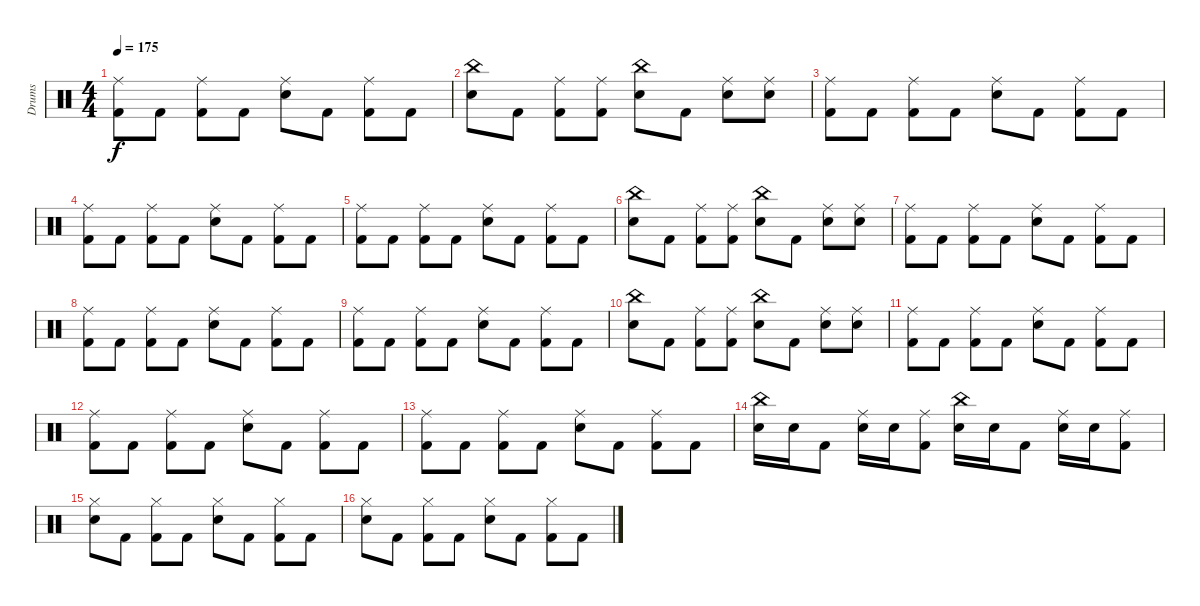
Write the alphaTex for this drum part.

\track ("Drums" "Drums") {instrument percussion}
\staff {score}
\articulation defaults
\ts (4 4)
\tempo 175
\clef neutral
\ks c
("Ride (middle)" "Kick (hit) 2").8{dy f} "Kick (hit) 2".8 ("Ride (middle)" "Kick (hit) 2").8 "Kick (hit) 2".8 ("Ride (middle)" "Electric Snare (hit)").8 "Kick (hit) 2".8 ("Ride (middle)" "Kick (hit) 2").8 "Kick (hit) 2".8 |
("China (hit)" "Electric Snare (hit)").8 "Kick (hit) 2".8 ("Ride (middle)" "Kick (hit) 2").8 ("Ride (middle)" "Kick (hit) 2").8 ("China (hit)" "Electric Snare (hit)").8 "Kick (hit) 2".8 ("Ride (middle)" "Electric Snare (hit)").8 ("Ride (middle)" "Electric Snare (hit)").8 |
("Ride (middle)" "Kick (hit) 2").8 "Kick (hit) 2".8 ("Ride (middle)" "Kick (hit) 2").8 "Kick (hit) 2".8 ("Ride (middle)" "Electric Snare (hit)").8 "Kick (hit) 2".8 ("Ride (middle)" "Kick (hit) 2").8 "Kick (hit) 2".8 |
("Ride (middle)" "Kick (hit) 2").8 "Kick (hit) 2".8 ("Ride (middle)" "Kick (hit) 2").8 "Kick (hit) 2".8 ("Ride (middle)" "Electric Snare (hit)").8 "Kick (hit) 2".8 ("Ride (middle)" "Kick (hit) 2").8 "Kick (hit) 2".8 |
("Ride (middle)" "Kick (hit) 2").8 "Kick (hit) 2".8 ("Ride (middle)" "Kick (hit) 2").8 "Kick (hit) 2".8 ("Ride (middle)" "Electric Snare (hit)").8 "Kick (hit) 2".8 ("Ride (middle)" "Kick (hit) 2").8 "Kick (hit) 2".8 |
("China (hit)" "Electric Snare (hit)").8 "Kick (hit) 2".8 ("Ride (middle)" "Kick (hit) 2").8 ("Ride (middle)" "Kick (hit) 2").8 ("China (hit)" "Electric Snare (hit)").8 "Kick (hit) 2".8 ("Ride (middle)" "Electric Snare (hit)").8 ("Ride (middle)" "Electric Snare (hit)").8 |
("Ride (middle)" "Kick (hit) 2").8 "Kick (hit) 2".8 ("Ride (middle)" "Kick (hit) 2").8 "Kick (hit) 2".8 ("Ride (middle)" "Electric Snare (hit)").8 "Kick (hit) 2".8 ("Ride (middle)" "Kick (hit) 2").8 "Kick (hit) 2".8 |
("Ride (middle)" "Kick (hit) 2").8 "Kick (hit) 2".8 ("Ride (middle)" "Kick (hit) 2").8 "Kick (hit) 2".8 ("Ride (middle)" "Electric Snare (hit)").8 "Kick (hit) 2".8 ("Ride (middle)" "Kick (hit) 2").8 "Kick (hit) 2".8 |
("Ride (middle)" "Kick (hit) 2").8 "Kick (hit) 2".8 ("Ride (middle)" "Kick (hit) 2").8 "Kick (hit) 2".8 ("Ride (middle)" "Electric Snare (hit)").8 "Kick (hit) 2".8 ("Ride (middle)" "Kick (hit) 2").8 "Kick (hit) 2".8 |
("China (hit)" "Electric Snare (hit)").8 "Kick (hit) 2".8 ("Ride (middle)" "Kick (hit) 2").8 ("Ride (middle)" "Kick (hit) 2").8 ("China (hit)" "Electric Snare (hit)").8 "Kick (hit) 2".8 ("Ride (middle)" "Electric Snare (hit)").8 ("Ride (middle)" "Electric Snare (hit)").8 |
("Ride (middle)" "Kick (hit) 2").8 "Kick (hit) 2".8 ("Ride (middle)" "Kick (hit) 2").8 "Kick (hit) 2".8 ("Ride (middle)" "Electric Snare (hit)").8 "Kick (hit) 2".8 ("Ride (middle)" "Kick (hit) 2").8 "Kick (hit) 2".8 |
("Ride (middle)" "Kick (hit) 2").8 "Kick (hit) 2".8 ("Ride (middle)" "Kick (hit) 2").8 "Kick (hit) 2".8 ("Ride (middle)" "Electric Snare (hit)").8 "Kick (hit) 2".8 ("Ride (middle)" "Kick (hit) 2").8 "Kick (hit) 2".8 |
("Ride (middle)" "Kick (hit) 2").8 "Kick (hit) 2".8 ("Ride (middle)" "Kick (hit) 2").8 "Kick (hit) 2".8 ("Ride (middle)" "Electric Snare (hit)").8 "Kick (hit) 2".8 ("Ride (middle)" "Kick (hit) 2").8 "Kick (hit) 2".8 |
("China (hit)" "Electric Snare (hit)").16 "Electric Snare (hit)".16 "Kick (hit) 2".8 ("Ride (middle)" "Electric Snare (hit)").16 "Electric Snare (hit)".16 ("Ride (middle)" "Kick (hit) 2").8 ("China (hit)" "Electric Snare (hit)").16 "Electric Snare (hit)".16 "Kick (hit) 2".8 ("Ride (middle)" "Electric Snare (hit)").16 "Electric Snare (hit)".16 ("Ride (middle)" "Kick (hit) 2").8 |
("Hi-Hat (closed)" "Electric Snare (hit)").8 "Kick (hit) 2".8 ("Hi-Hat (closed)" "Kick (hit) 2").8 "Kick (hit) 2".8 ("Hi-Hat (closed)" "Electric Snare (hit)").8 "Kick (hit) 2".8 ("Hi-Hat (closed)" "Kick (hit) 2").8 "Kick (hit) 2".8 |
("Hi-Hat (closed)" "Electric Snare (hit)").8 "Kick (hit) 2".8 ("Hi-Hat (closed)" "Kick (hit) 2").8 "Kick (hit) 2".8 ("Hi-Hat (closed)" "Electric Snare (hit)").8 "Kick (hit) 2".8 ("Hi-Hat (closed)" "Kick (hit) 2").8 "Kick (hit) 2".8
